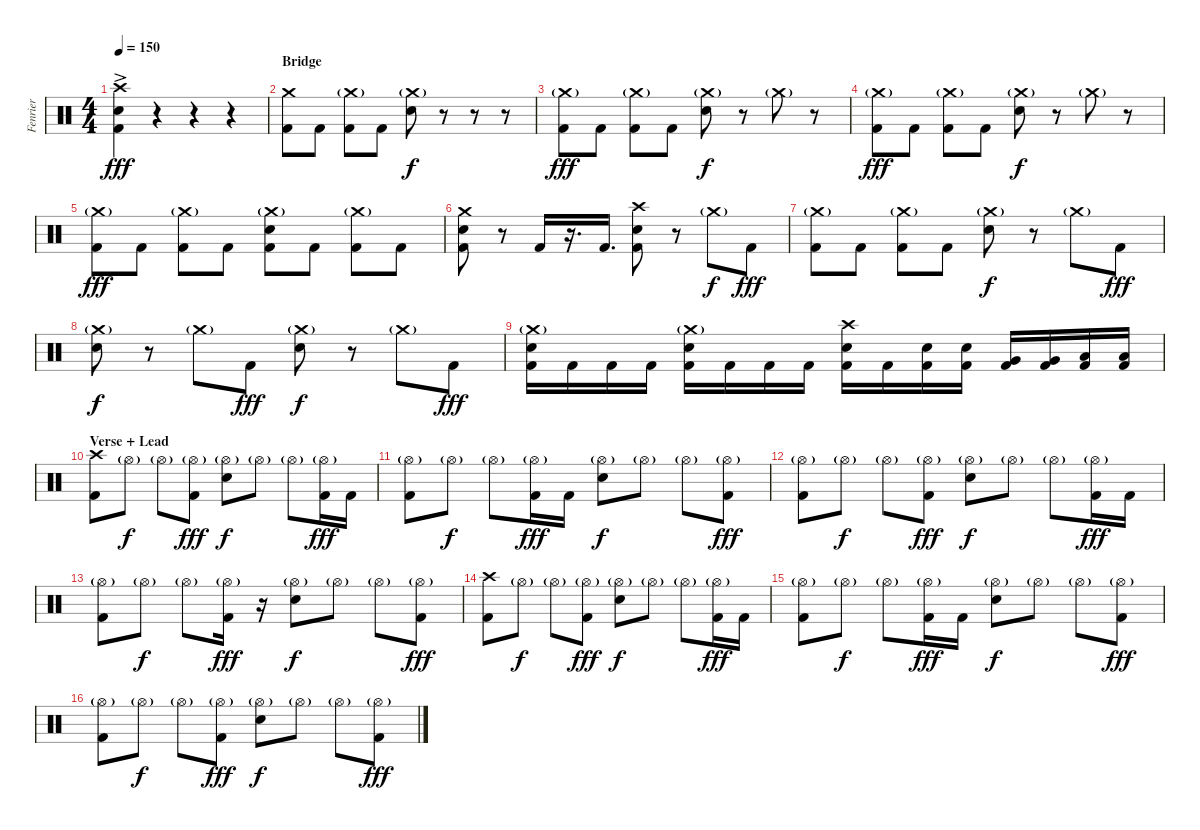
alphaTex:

\track ("Fenrier" "Fenrier") {instrument percussion}
\staff {score}
\articulation defaults
\ts (4 4)
\tempo 150
\clef neutral
\ks c
("Crash high (hit)" "Electric Snare (hit)"{ac} "Kick (hit) 2").4{dy fff} r.4 r.4 r.4 |
\section ("" "Bridge")
("Crash medium (hit)" "Kick (hit) 2").8 "Kick (hit) 2".8 ("Crash medium (hit)"{g} "Kick (hit) 2").8 "Kick (hit) 2".8 ("Crash medium (hit)"{g} "Electric Snare (hit)").8{dy f} r.8 r.8 r.8 |
("Crash medium (hit)"{g} "Kick (hit) 2").8{dy fff} "Kick (hit) 2".8 ("Crash medium (hit)"{g} "Kick (hit) 2").8 "Kick (hit) 2".8 ("Crash medium (hit)"{g} "Electric Snare (hit)").8{dy f} r.8 "Crash medium (hit)"{g}.8 r.8 |
("Crash medium (hit)"{g} "Kick (hit) 2").8{dy fff} "Kick (hit) 2".8 ("Crash medium (hit)"{g} "Kick (hit) 2").8 "Kick (hit) 2".8 ("Crash medium (hit)"{g} "Electric Snare (hit)").8{dy f} r.8 "Crash medium (hit)"{g}.8 r.8 |
("Crash medium (hit)"{g} "Kick (hit) 2").8{dy fff} "Kick (hit) 2".8 ("Crash medium (hit)"{g} "Kick (hit) 2").8 "Kick (hit) 2".8 ("Crash medium (hit)"{g} "Electric Snare (hit)" "Kick (hit) 2").8 "Kick (hit) 2".8 ("Crash medium (hit)"{g} "Kick (hit) 2").8 "Kick (hit) 2".8 |
("Crash medium (hit)" "Electric Snare (hit)" "Kick (hit) 2").8 r.8 "Kick (hit) 2".16 r.16{d} "Kick (hit) 2".16{d} ("Crash high (hit)" "Electric Snare (hit)" "Kick (hit) 2").8 r.8 "Crash medium (hit)"{g}.8{dy f} "Kick (hit) 2".8{dy fff} |
("Crash medium (hit)"{g} "Kick (hit) 2").8 "Kick (hit) 2".8 ("Crash medium (hit)"{g} "Kick (hit) 2").8 "Kick (hit) 2".8 ("Crash medium (hit)"{g} "Electric Snare (hit)").8{dy f} r.8 "Crash medium (hit)"{g}.8 "Kick (hit) 2".8{dy fff} |
("Crash medium (hit)"{g} "Electric Snare (hit)").8{dy f} r.8 "Crash medium (hit)"{g}.8 "Kick (hit) 2".8{dy fff} ("Crash medium (hit)"{g} "Electric Snare (hit)").8{dy f} r.8 "Crash medium (hit)"{g}.8 "Kick (hit) 2".8{dy fff} |
("Crash medium (hit)"{g} "Electric Snare (hit)" "Kick (hit) 2").16 "Kick (hit) 2".16 "Kick (hit) 2".16 "Kick (hit) 2".16 ("Crash medium (hit)"{g} "Electric Snare (hit)" "Kick (hit) 2").16 "Kick (hit) 2".16 "Kick (hit) 2".16 "Kick (hit) 2".16 ("Crash high (hit)" "Electric Snare (hit)" "Kick (hit) 2").16 "Kick (hit) 2".16 ("Electric Snare (hit)" "Kick (hit) 2").16 ("Electric Snare (hit)" "Kick (hit) 2").16 ("Very Low Tom (hit)" "Kick (hit) 2").16 ("Very Low Tom (hit)" "Kick (hit) 2").16 ("Low Floor Tom (hit)" "Kick (hit) 2").16 ("Low Floor Tom (hit)" "Kick (hit) 2").16 |
\section ("" "Verse + Lead")
("Crash high (hit)" "Kick (hit) 2").8 "Hi-Hat (open)"{g}.8{dy f} "Hi-Hat (open)"{g}.8 ("Hi-Hat (open)"{g} "Kick (hit) 2").8{dy fff} ("Hi-Hat (open)"{g} "Electric Snare (hit)").8{dy f} "Hi-Hat (open)"{g}.8 "Hi-Hat (open)"{g}.8 ("Hi-Hat (open)"{g} "Kick (hit) 2").16{dy fff} "Kick (hit) 2".16 |
("Hi-Hat (open)"{g} "Kick (hit) 2").8 "Hi-Hat (open)"{g}.8{dy f} "Hi-Hat (open)"{g}.8 ("Hi-Hat (open)"{g} "Kick (hit) 2").16{dy fff} "Kick (hit) 2".16 ("Hi-Hat (open)"{g} "Electric Snare (hit)").8{dy f} "Hi-Hat (open)"{g}.8 "Hi-Hat (open)"{g}.8 ("Hi-Hat (open)"{g} "Kick (hit) 2").8{dy fff} |
("Hi-Hat (open)"{g} "Kick (hit) 2").8 "Hi-Hat (open)"{g}.8{dy f} "Hi-Hat (open)"{g}.8 ("Hi-Hat (open)"{g} "Kick (hit) 2").8{dy fff} ("Hi-Hat (open)"{g} "Electric Snare (hit)").8{dy f} "Hi-Hat (open)"{g}.8 "Hi-Hat (open)"{g}.8 ("Hi-Hat (open)"{g} "Kick (hit) 2").16{dy fff} "Kick (hit) 2".16 |
("Hi-Hat (open)"{g} "Kick (hit) 2").8 "Hi-Hat (open)"{g}.8{dy f} "Hi-Hat (open)"{g}.8 ("Hi-Hat (open)"{g} "Kick (hit) 2").16{dy fff} r.16 ("Hi-Hat (open)"{g} "Electric Snare (hit)").8{dy f} "Hi-Hat (open)"{g}.8 "Hi-Hat (open)"{g}.8 ("Hi-Hat (open)"{g} "Kick (hit) 2").8{dy fff} |
("Crash high (hit)" "Kick (hit) 2").8 "Hi-Hat (open)"{g}.8{dy f} "Hi-Hat (open)"{g}.8 ("Hi-Hat (open)"{g} "Kick (hit) 2").8{dy fff} ("Hi-Hat (open)"{g} "Electric Snare (hit)").8{dy f} "Hi-Hat (open)"{g}.8 "Hi-Hat (open)"{g}.8 ("Hi-Hat (open)"{g} "Kick (hit) 2").16{dy fff} "Kick (hit) 2".16 |
("Hi-Hat (open)"{g} "Kick (hit) 2").8 "Hi-Hat (open)"{g}.8{dy f} "Hi-Hat (open)"{g}.8 ("Hi-Hat (open)"{g} "Kick (hit) 2").16{dy fff} "Kick (hit) 2".16 ("Hi-Hat (open)"{g} "Electric Snare (hit)").8{dy f} "Hi-Hat (open)"{g}.8 "Hi-Hat (open)"{g}.8 ("Hi-Hat (open)"{g} "Kick (hit) 2").8{dy fff} |
("Hi-Hat (open)"{g} "Kick (hit) 2").8 "Hi-Hat (open)"{g}.8{dy f} "Hi-Hat (open)"{g}.8 ("Hi-Hat (open)"{g} "Kick (hit) 2").8{dy fff} ("Hi-Hat (open)"{g} "Electric Snare (hit)").8{dy f} "Hi-Hat (open)"{g}.8 "Hi-Hat (open)"{g}.8 ("Hi-Hat (open)"{g} "Kick (hit) 2").8{dy fff}
